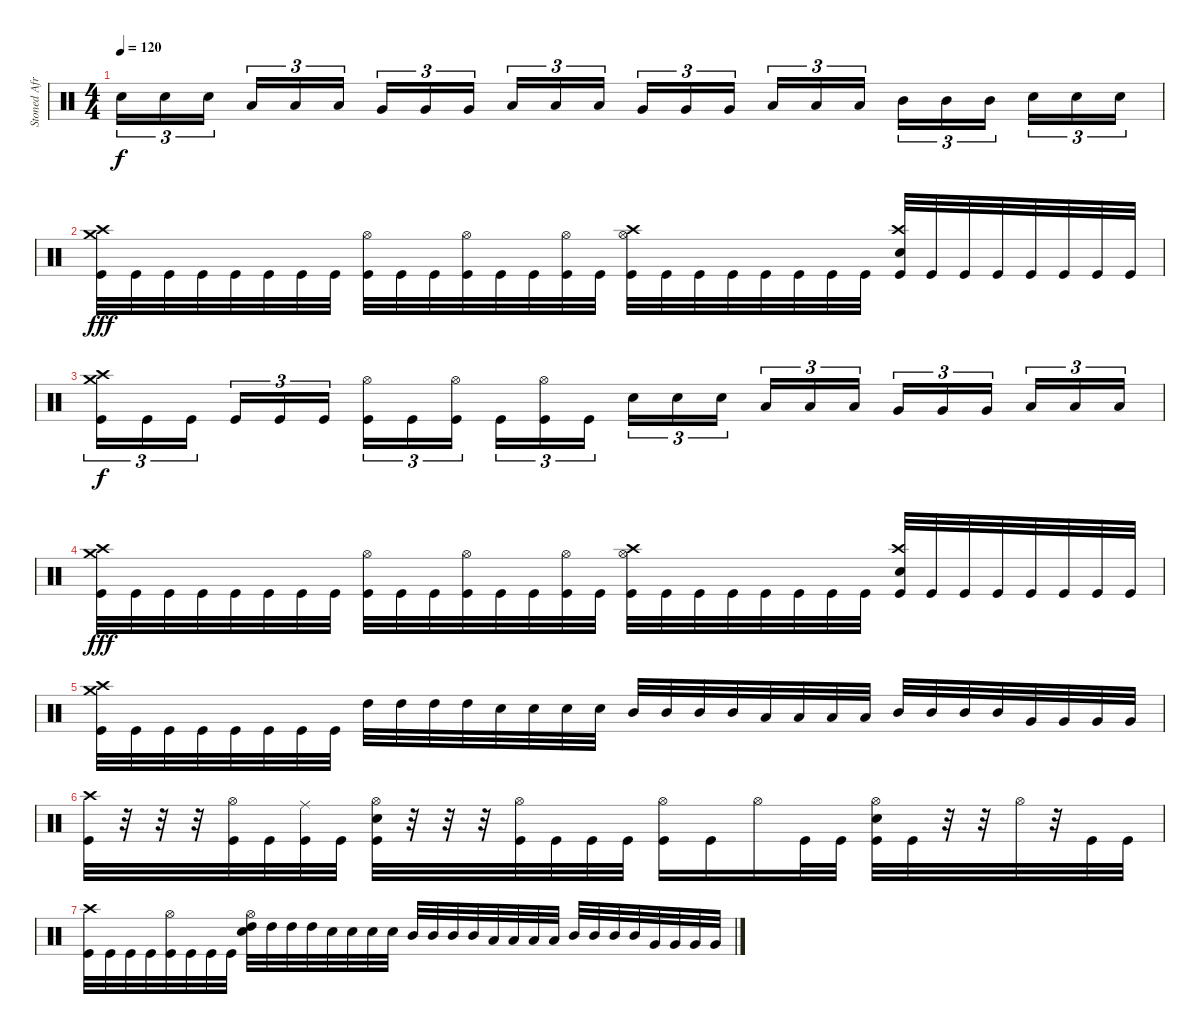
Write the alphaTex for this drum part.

\track ("Stoned Afro Drummer" "Stoned Afr") {instrument percussion}
\staff {score}
\articulation defaults
\ts (4 4)
\tempo 120
\clef neutral
\ks c "Snare (hit) 2".16{tu (3 2) dy f} "Snare (hit) 2".16{tu (3 2)} "Snare (hit) 2".16{tu (3 2)} "Low Tom (hit)".16{tu (3 2)} "Low Tom (hit)".16{tu (3 2)} "Low Tom (hit)".16{tu (3 2)} "Very Low Tom (hit)".16{tu (3 2)} "Very Low Tom (hit)".16{tu (3 2)} "Very Low Tom (hit)".16{tu (3 2)} "Low Floor Tom (hit)".16{tu (3 2)} "Low Floor Tom (hit)".16{tu (3 2)} "Low Floor Tom (hit)".16{tu (3 2)} "Very Low Tom (hit)".16{tu (3 2)} "Very Low Tom (hit)".16{tu (3 2)} "Very Low Tom (hit)".16{tu (3 2)} "Low Tom (hit)".16{tu (3 2)} "Low Tom (hit)".16{tu (3 2)} "Low Tom (hit)".16{tu (3 2)} "Mid Tom (hit)".16{tu (3 2)} "Mid Tom (hit)".16{tu (3 2)} "Mid Tom (hit)".16{tu (3 2)} "Snare (hit) 2".16{tu (3 2)} "Snare (hit) 2".16{tu (3 2)} "Snare (hit) 2".16{tu (3 2)}
|
("Crash high (hit)" "Crash medium (hit)" "Kick (hit)").32{dy fff} "Kick (hit)".32 "Kick (hit)".32 "Kick (hit)".32 "Kick (hit)".32 "Kick (hit)".32 "Kick (hit)".32 "Kick (hit)".32 ("Hi-Hat (open)" "Kick (hit)").32 "Kick (hit)".32 "Kick (hit)".32 ("Hi-Hat (open)" "Kick (hit)").32 "Kick (hit)".32 "Kick (hit)".32 ("Hi-Hat (open)" "Kick (hit)").32 "Kick (hit)".32 ("Hi-Hat (open)" "Crash high (hit)" "Kick (hit)").32 "Kick (hit)".32 "Kick (hit)".32 "Kick (hit)".32 "Kick (hit)".32 "Kick (hit)".32 "Kick (hit)".32 "Kick (hit)".32 ("Crash high (hit)" "Snare (hit) 2" "Kick (hit)").32 "Kick (hit)".32 "Kick (hit)".32 "Kick (hit)".32 "Kick (hit)".32 "Kick (hit)".32 "Kick (hit)".32 "Kick (hit)".32 |
("Crash high (hit)" "Crash medium (hit)" "Kick (hit)").16{tu (3 2) dy f} "Kick (hit)".16{tu (3 2)} "Kick (hit)".16{tu (3 2)} "Kick (hit)".16{tu (3 2)} "Kick (hit)".16{tu (3 2)} "Kick (hit)".16{tu (3 2)} ("Hi-Hat (open)" "Kick (hit)").16{tu (3 2)} "Kick (hit)".16{tu (3 2)} ("Hi-Hat (open)" "Kick (hit)").16{tu (3 2)} "Kick (hit)".16{tu (3 2)} ("Hi-Hat (open)" "Kick (hit)").16{tu (3 2)} "Kick (hit)".16{tu (3 2)} "Snare (hit) 2".16{tu (3 2)} "Snare (hit) 2".16{tu (3 2)} "Snare (hit) 2".16{tu (3 2)} "Low Tom (hit)".16{tu (3 2)} "Low Tom (hit)".16{tu (3 2)} "Low Tom (hit)".16{tu (3 2)} "Very Low Tom (hit)".16{tu (3 2)} "Very Low Tom (hit)".16{tu (3 2)} "Very Low Tom (hit)".16{tu (3 2)} "Low Floor Tom (hit)".16{tu (3 2)} "Low Floor Tom (hit)".16{tu (3 2)} "Low Floor Tom (hit)".16{tu (3 2)} |
("Crash high (hit)" "Crash medium (hit)" "Kick (hit)").32{dy fff} "Kick (hit)".32 "Kick (hit)".32 "Kick (hit)".32 "Kick (hit)".32 "Kick (hit)".32 "Kick (hit)".32 "Kick (hit)".32 ("Hi-Hat (open)" "Kick (hit)").32 "Kick (hit)".32 "Kick (hit)".32 ("Hi-Hat (open)" "Kick (hit)").32 "Kick (hit)".32 "Kick (hit)".32 ("Hi-Hat (open)" "Kick (hit)").32 "Kick (hit)".32 ("Hi-Hat (open)" "Crash high (hit)" "Kick (hit)").32 "Kick (hit)".32 "Kick (hit)".32 "Kick (hit)".32 "Kick (hit)".32 "Kick (hit)".32 "Kick (hit)".32 "Kick (hit)".32 ("Crash high (hit)" "Snare (hit) 2" "Kick (hit)").32 "Kick (hit)".32 "Kick (hit)".32 "Kick (hit)".32 "Kick (hit)".32 "Kick (hit)".32 "Kick (hit)".32 "Kick (hit)".32 |
("Crash high (hit)" "Crash medium (hit)" "Kick (hit)").32 "Kick (hit)".32 "Kick (hit)".32 "Kick (hit)".32 "Kick (hit)".32 "Kick (hit)".32 "Kick (hit)".32 "Kick (hit)".32 "High Tom (hit)".32 "High Tom (hit)".32 "High Tom (hit)".32 "High Tom (hit)".32 "Snare (hit) 2".32 "Snare (hit) 2".32 "Snare (hit) 2".32 "Snare (hit) 2".32 "Mid Tom (hit)".32 "Mid Tom (hit)".32 "Mid Tom (hit)".32 "Mid Tom (hit)".32 "Low Tom (hit)".32 "Low Tom (hit)".32 "Low Tom (hit)".32 "Low Tom (hit)".32 "Mid Tom (hit)".32 "Mid Tom (hit)".32 "Mid Tom (hit)".32 "Mid Tom (hit)".32 "Very Low Tom (hit)".32 "Very Low Tom (hit)".32 "Very Low Tom (hit)".32 "Very Low Tom (hit)".32 |
("Crash high (hit)" "Kick (hit)").32 r.32 r.32 r.32 ("Hi-Hat (open)" "Kick (hit)").32 "Kick (hit)".32 ("Ride (middle)" "Kick (hit)").32 "Kick (hit)".32 ("Hi-Hat (open)" "Snare (hit) 2" "Kick (hit)").32 r.32 r.32 r.32 ("Hi-Hat (open)" "Kick (hit)").32 "Kick (hit)".32 "Kick (hit)".32 "Kick (hit)".32 ("Hi-Hat (open)" "Kick (hit)").16 "Kick (hit)".16 "Hi-Hat (open)".16 "Kick (hit)".32 "Kick (hit)".32 ("Hi-Hat (open)" "Snare (hit) 2" "Kick (hit)").32 "Kick (hit)".32 r.32 r.32 "Hi-Hat (open)".32 r.32 "Kick (hit)".32 "Kick (hit)".32 |
("Crash high (hit)" "Kick (hit)").32 "Kick (hit)".32 "Kick (hit)".32 "Kick (hit)".32 ("Hi-Hat (open)" "Kick (hit)").32 "Kick (hit)".32 "Kick (hit)".32 "Kick (hit)".32 ("Hi-Hat (open)" "Snare (hit) 2" "High Tom (hit)").32 "High Tom (hit)".32 "High Tom (hit)".32 "High Tom (hit)".32 "Snare (hit) 2".32 "Snare (hit) 2".32 "Snare (hit) 2".32 "Snare (hit) 2".32 "Mid Tom (hit)".32 "Mid Tom (hit)".32 "Mid Tom (hit)".32 "Mid Tom (hit)".32 "Low Tom (hit)".32 "Low Tom (hit)".32 "Low Tom (hit)".32 "Low Tom (hit)".32 "Mid Tom (hit)".32 "Mid Tom (hit)".32 "Mid Tom (hit)".32 "Mid Tom (hit)".32 "Very Low Tom (hit)".32 "Very Low Tom (hit)".32 "Very Low Tom (hit)".32 "Very Low Tom (hit)".32
